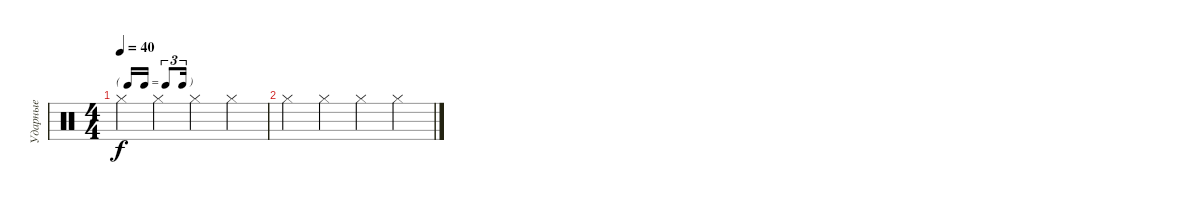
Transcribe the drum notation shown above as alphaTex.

\track ("Ударные" "Ударные") {instrument percussion}
\staff {score}
\articulation defaults
\ts (4 4)
\tf triplet16th
\tempo 40
\clef neutral
\ks c "Hi-Hat (closed)".4{dy f} "Hi-Hat (closed)".4 "Hi-Hat (closed)".4 "Hi-Hat (closed)".4
|
"Hi-Hat (closed)".4 "Hi-Hat (closed)".4 "Hi-Hat (closed)".4 "Hi-Hat (closed)".4
